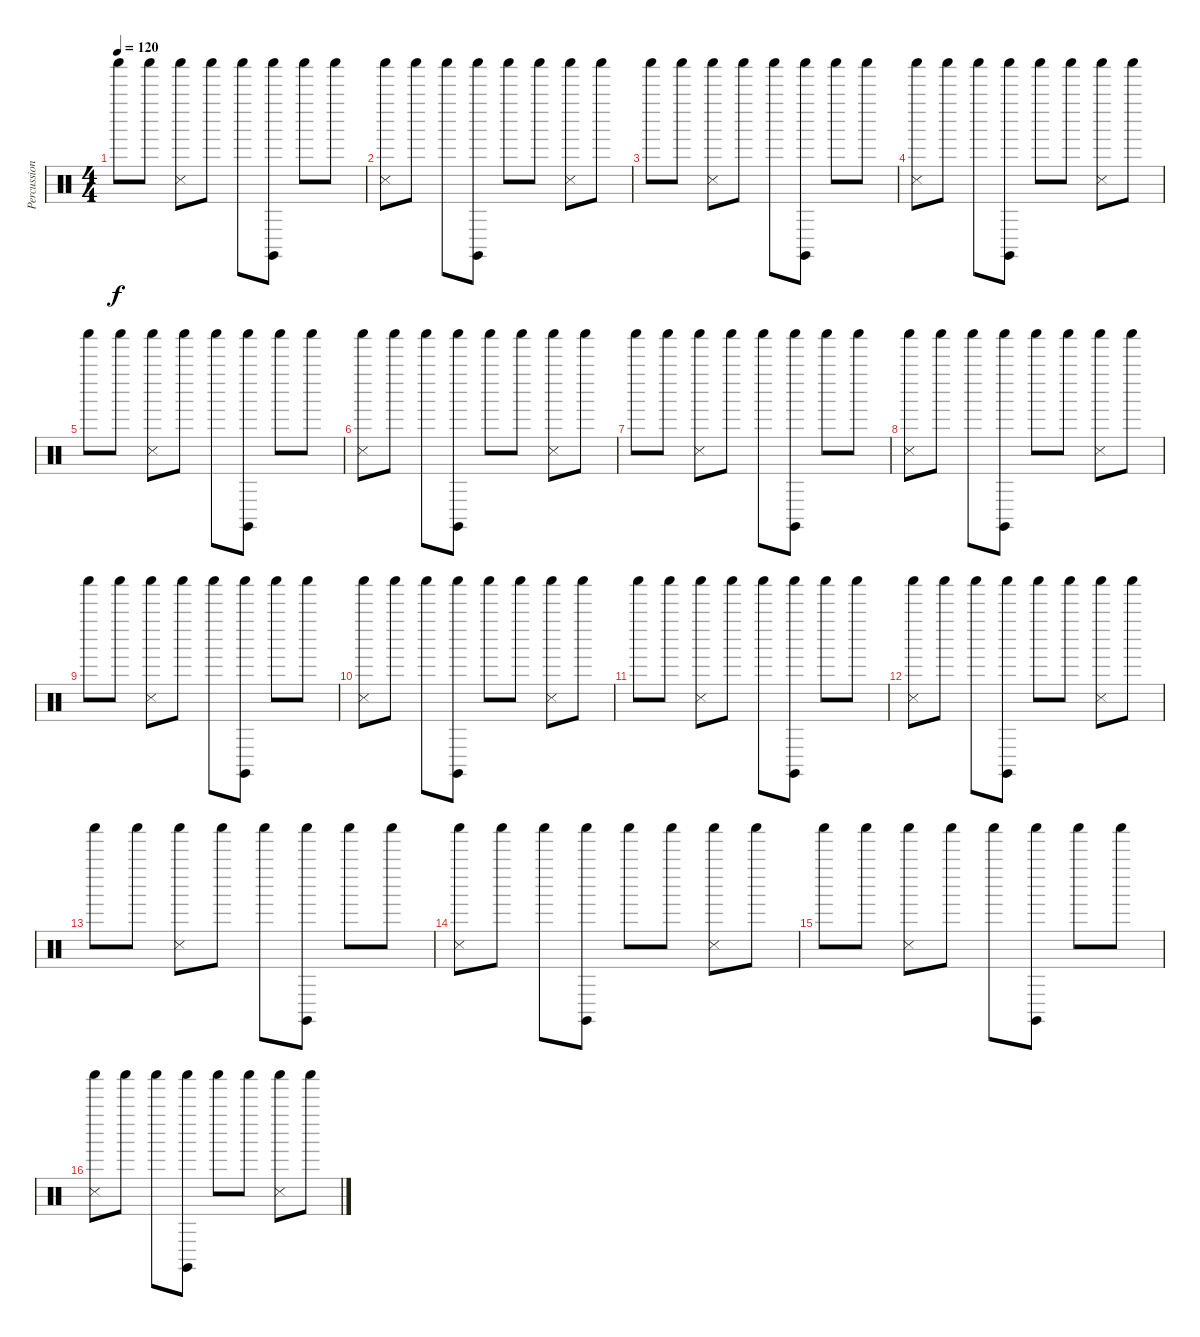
\track ("Percussion" "Percussion") {instrument percussion}
\staff {score}
\articulation defaults
\ts (4 4)
\tempo 120
\clef neutral
\ks c "Shaker (hit)".8{dy f} "Shaker (hit)".8
("Snare (side stick) 3" "Shaker (hit)").8 "Shaker (hit)".8 "Shaker (hit)".8 ("Claves (hit)" "Shaker (hit)").8 "Shaker (hit)".8 "Shaker (hit)".8 |
("Snare (side stick) 3" "Shaker (hit)").8 "Shaker (hit)".8 "Shaker (hit)".8 ("Claves (hit)" "Shaker (hit)").8 "Shaker (hit)".8 "Shaker (hit)".8 ("Snare (side stick) 3" "Shaker (hit)").8 "Shaker (hit)".8 |
"Shaker (hit)".8 "Shaker (hit)".8 ("Snare (side stick) 3" "Shaker (hit)").8 "Shaker (hit)".8 "Shaker (hit)".8 ("Claves (hit)" "Shaker (hit)").8 "Shaker (hit)".8 "Shaker (hit)".8 |
("Snare (side stick) 3" "Shaker (hit)").8 "Shaker (hit)".8 "Shaker (hit)".8 ("Claves (hit)" "Shaker (hit)").8 "Shaker (hit)".8 "Shaker (hit)".8 ("Snare (side stick) 3" "Shaker (hit)").8 "Shaker (hit)".8 |
"Shaker (hit)".8 "Shaker (hit)".8 ("Snare (side stick) 3" "Shaker (hit)").8 "Shaker (hit)".8 "Shaker (hit)".8 ("Claves (hit)" "Shaker (hit)").8 "Shaker (hit)".8 "Shaker (hit)".8 |
("Snare (side stick) 3" "Shaker (hit)").8 "Shaker (hit)".8 "Shaker (hit)".8 ("Claves (hit)" "Shaker (hit)").8 "Shaker (hit)".8 "Shaker (hit)".8 ("Snare (side stick) 3" "Shaker (hit)").8 "Shaker (hit)".8 |
"Shaker (hit)".8 "Shaker (hit)".8 ("Snare (side stick) 3" "Shaker (hit)").8 "Shaker (hit)".8 "Shaker (hit)".8 ("Claves (hit)" "Shaker (hit)").8 "Shaker (hit)".8 "Shaker (hit)".8 |
("Snare (side stick) 3" "Shaker (hit)").8 "Shaker (hit)".8 "Shaker (hit)".8 ("Claves (hit)" "Shaker (hit)").8 "Shaker (hit)".8 "Shaker (hit)".8 ("Snare (side stick) 3" "Shaker (hit)").8 "Shaker (hit)".8 |
"Shaker (hit)".8 "Shaker (hit)".8 ("Snare (side stick) 3" "Shaker (hit)").8 "Shaker (hit)".8 "Shaker (hit)".8 ("Claves (hit)" "Shaker (hit)").8 "Shaker (hit)".8 "Shaker (hit)".8 |
("Snare (side stick) 3" "Shaker (hit)").8 "Shaker (hit)".8 "Shaker (hit)".8 ("Claves (hit)" "Shaker (hit)").8 "Shaker (hit)".8 "Shaker (hit)".8 ("Snare (side stick) 3" "Shaker (hit)").8 "Shaker (hit)".8 |
"Shaker (hit)".8 "Shaker (hit)".8 ("Snare (side stick) 3" "Shaker (hit)").8 "Shaker (hit)".8 "Shaker (hit)".8 ("Claves (hit)" "Shaker (hit)").8 "Shaker (hit)".8 "Shaker (hit)".8 |
("Snare (side stick) 3" "Shaker (hit)").8 "Shaker (hit)".8 "Shaker (hit)".8 ("Claves (hit)" "Shaker (hit)").8 "Shaker (hit)".8 "Shaker (hit)".8 ("Snare (side stick) 3" "Shaker (hit)").8 "Shaker (hit)".8 |
"Shaker (hit)".8 "Shaker (hit)".8 ("Snare (side stick) 3" "Shaker (hit)").8 "Shaker (hit)".8 "Shaker (hit)".8 ("Claves (hit)" "Shaker (hit)").8 "Shaker (hit)".8 "Shaker (hit)".8 |
("Snare (side stick) 3" "Shaker (hit)").8 "Shaker (hit)".8 "Shaker (hit)".8 ("Claves (hit)" "Shaker (hit)").8 "Shaker (hit)".8 "Shaker (hit)".8 ("Snare (side stick) 3" "Shaker (hit)").8 "Shaker (hit)".8 |
"Shaker (hit)".8 "Shaker (hit)".8 ("Snare (side stick) 3" "Shaker (hit)").8 "Shaker (hit)".8 "Shaker (hit)".8 ("Claves (hit)" "Shaker (hit)").8 "Shaker (hit)".8 "Shaker (hit)".8 |
("Snare (side stick) 3" "Shaker (hit)").8 "Shaker (hit)".8 "Shaker (hit)".8 ("Claves (hit)" "Shaker (hit)").8 "Shaker (hit)".8 "Shaker (hit)".8 ("Snare (side stick) 3" "Shaker (hit)").8 "Shaker (hit)".8
